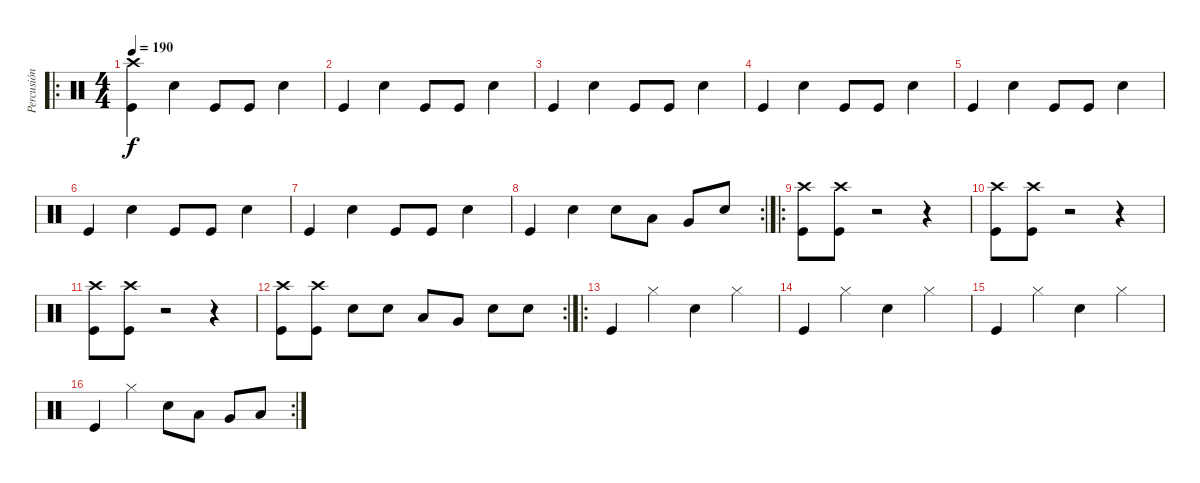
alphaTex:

\track ("Percusión" "Percusión") {instrument percussion}
\staff {score}
\articulation defaults
\ro
\ts (4 4)
\tempo 190
\clef neutral
\ks c
("Crash high (hit)" "Kick (hit)").4{dy f} "Electric Snare (hit)".4 "Kick (hit)".8 "Kick (hit)".8 "Electric Snare (hit)".4 |
"Kick (hit)".4 "Electric Snare (hit)".4 "Kick (hit)".8 "Kick (hit)".8 "Electric Snare (hit)".4 |
"Kick (hit)".4 "Electric Snare (hit)".4 "Kick (hit)".8 "Kick (hit)".8 "Electric Snare (hit)".4 |
"Kick (hit)".4 "Electric Snare (hit)".4 "Kick (hit)".8 "Kick (hit)".8 "Electric Snare (hit)".4 |
"Kick (hit)".4 "Electric Snare (hit)".4 "Kick (hit)".8 "Kick (hit)".8 "Electric Snare (hit)".4 |
"Kick (hit)".4 "Electric Snare (hit)".4 "Kick (hit)".8 "Kick (hit)".8 "Electric Snare (hit)".4 |
"Kick (hit)".4 "Electric Snare (hit)".4 "Kick (hit)".8 "Kick (hit)".8 "Electric Snare (hit)".4 |
\rc 2 "Kick (hit)".4 "Electric Snare (hit)".4 "Electric Snare (hit)".8 "Low Floor Tom (hit)".8 "Very Low Tom (hit)".8 "Electric Snare (hit)".8
|
\ro
("Crash high (hit)" "Kick (hit)").8 ("Crash high (hit)" "Kick (hit)").8 r.2 r.4 |
("Crash high (hit)" "Kick (hit)").8 ("Crash high (hit)" "Kick (hit)").8 r.2 r.4 |
("Crash high (hit)" "Kick (hit)").8 ("Crash high (hit)" "Kick (hit)").8 r.2 r.4 |
\rc 2
("Crash high (hit)" "Kick (hit)").8 ("Crash high (hit)" "Kick (hit)").8 "Electric Snare (hit)".8 "Electric Snare (hit)".8 "Low Floor Tom (hit)".8 "Very Low Tom (hit)".8 "Electric Snare (hit)".8 "Electric Snare (hit)".8 |
\ro "Kick (hit)".4 "Hi-Hat (closed)".4 "Electric Snare (hit)".4 "Hi-Hat (closed)".4
|
"Kick (hit)".4 "Hi-Hat (closed)".4 "Electric Snare (hit)".4 "Hi-Hat (closed)".4 |
"Kick (hit)".4 "Hi-Hat (closed)".4 "Electric Snare (hit)".4 "Hi-Hat (closed)".4 |
\rc 2 "Kick (hit)".4 "Hi-Hat (closed)".4 "Electric Snare (hit)".8 "Low Floor Tom (hit)".8 "Very Low Tom (hit)".8 "Low Tom (hit)".8
